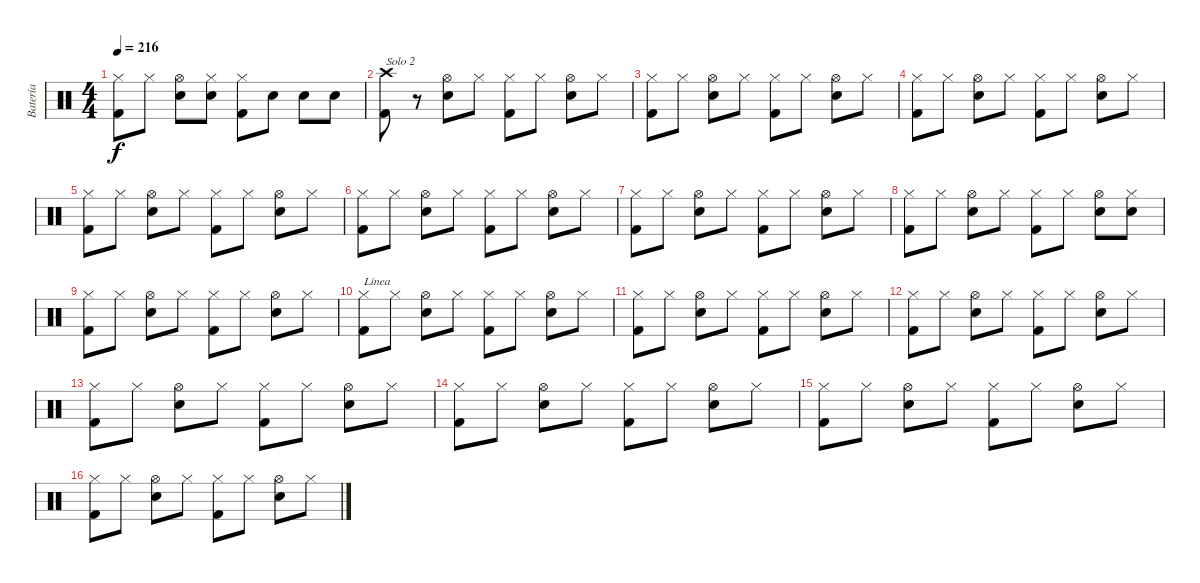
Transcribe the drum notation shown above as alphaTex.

\track ("Batería" "Batería") {instrument percussion}
\staff {score}
\articulation defaults
\ts (4 4)
\tempo 216
\clef neutral
\ks c
("Kick (hit) 2" "Hi-Hat (closed)").8{dy f} "Hi-Hat (closed)".8 ("Electric Snare (hit)" "Hi-Hat (open)").8 ("Electric Snare (hit)" "Hi-Hat (closed)").8 ("Kick (hit) 2" "Hi-Hat (closed)").8 "Electric Snare (hit)".8 "Electric Snare (hit)".8 "Electric Snare (hit)".8 |
("Kick (hit) 2" "Crash high (hit)").8{txt "Solo 2"} r.8 ("Electric Snare (hit)" "Hi-Hat (open)").8 "Hi-Hat (closed)".8 ("Kick (hit) 2" "Hi-Hat (closed)").8 "Hi-Hat (closed)".8 ("Electric Snare (hit)" "Hi-Hat (open)").8 "Hi-Hat (closed)".8 |
("Kick (hit) 2" "Hi-Hat (closed)").8 "Hi-Hat (closed)".8 ("Electric Snare (hit)" "Hi-Hat (open)").8 "Hi-Hat (closed)".8 ("Kick (hit) 2" "Hi-Hat (closed)").8 "Hi-Hat (closed)".8 ("Electric Snare (hit)" "Hi-Hat (open)").8 "Hi-Hat (closed)".8 |
("Kick (hit) 2" "Hi-Hat (closed)").8 "Hi-Hat (closed)".8 ("Electric Snare (hit)" "Hi-Hat (open)").8 "Hi-Hat (closed)".8 ("Kick (hit) 2" "Hi-Hat (closed)").8 "Hi-Hat (closed)".8 ("Electric Snare (hit)" "Hi-Hat (open)").8 "Hi-Hat (closed)".8 |
("Kick (hit) 2" "Hi-Hat (closed)").8 "Hi-Hat (closed)".8 ("Electric Snare (hit)" "Hi-Hat (open)").8 "Hi-Hat (closed)".8 ("Kick (hit) 2" "Hi-Hat (closed)").8 "Hi-Hat (closed)".8 ("Electric Snare (hit)" "Hi-Hat (open)").8 "Hi-Hat (closed)".8 |
("Kick (hit) 2" "Hi-Hat (closed)").8 "Hi-Hat (closed)".8 ("Electric Snare (hit)" "Hi-Hat (open)").8 "Hi-Hat (closed)".8 ("Kick (hit) 2" "Hi-Hat (closed)").8 "Hi-Hat (closed)".8 ("Electric Snare (hit)" "Hi-Hat (open)").8 "Hi-Hat (closed)".8 |
("Kick (hit) 2" "Hi-Hat (closed)").8 "Hi-Hat (closed)".8 ("Electric Snare (hit)" "Hi-Hat (open)").8 "Hi-Hat (closed)".8 ("Kick (hit) 2" "Hi-Hat (closed)").8 "Hi-Hat (closed)".8 ("Electric Snare (hit)" "Hi-Hat (open)").8 "Hi-Hat (closed)".8 |
("Kick (hit) 2" "Hi-Hat (closed)").8 "Hi-Hat (closed)".8 ("Electric Snare (hit)" "Hi-Hat (open)").8 "Hi-Hat (closed)".8 ("Kick (hit) 2" "Hi-Hat (closed)").8 "Hi-Hat (closed)".8 ("Electric Snare (hit)" "Hi-Hat (open)").8 ("Electric Snare (hit)" "Hi-Hat (closed)").8 |
("Kick (hit) 2" "Hi-Hat (closed)").8 "Hi-Hat (closed)".8 ("Electric Snare (hit)" "Hi-Hat (open)").8 "Hi-Hat (closed)".8 ("Kick (hit) 2" "Hi-Hat (closed)").8 "Hi-Hat (closed)".8 ("Electric Snare (hit)" "Hi-Hat (open)").8 "Hi-Hat (closed)".8 |
("Kick (hit) 2" "Hi-Hat (closed)").8{txt "Línea"} "Hi-Hat (closed)".8 ("Electric Snare (hit)" "Hi-Hat (open)").8 "Hi-Hat (closed)".8 ("Kick (hit) 2" "Hi-Hat (closed)").8 "Hi-Hat (closed)".8 ("Electric Snare (hit)" "Hi-Hat (open)").8 "Hi-Hat (closed)".8 |
("Kick (hit) 2" "Hi-Hat (closed)").8 "Hi-Hat (closed)".8 ("Electric Snare (hit)" "Hi-Hat (open)").8 "Hi-Hat (closed)".8 ("Kick (hit) 2" "Hi-Hat (closed)").8 "Hi-Hat (closed)".8 ("Electric Snare (hit)" "Hi-Hat (open)").8 "Hi-Hat (closed)".8 |
("Kick (hit) 2" "Hi-Hat (closed)").8 "Hi-Hat (closed)".8 ("Electric Snare (hit)" "Hi-Hat (open)").8 "Hi-Hat (closed)".8 ("Kick (hit) 2" "Hi-Hat (closed)").8 "Hi-Hat (closed)".8 ("Electric Snare (hit)" "Hi-Hat (open)").8 "Hi-Hat (closed)".8 |
("Kick (hit) 2" "Hi-Hat (closed)").8 "Hi-Hat (closed)".8 ("Electric Snare (hit)" "Hi-Hat (open)").8 "Hi-Hat (closed)".8 ("Kick (hit) 2" "Hi-Hat (closed)").8 "Hi-Hat (closed)".8 ("Electric Snare (hit)" "Hi-Hat (open)").8 "Hi-Hat (closed)".8 |
("Kick (hit) 2" "Hi-Hat (closed)").8 "Hi-Hat (closed)".8 ("Electric Snare (hit)" "Hi-Hat (open)").8 "Hi-Hat (closed)".8 ("Kick (hit) 2" "Hi-Hat (closed)").8 "Hi-Hat (closed)".8 ("Electric Snare (hit)" "Hi-Hat (open)").8 "Hi-Hat (closed)".8 |
("Kick (hit) 2" "Hi-Hat (closed)").8 "Hi-Hat (closed)".8 ("Electric Snare (hit)" "Hi-Hat (open)").8 "Hi-Hat (closed)".8 ("Kick (hit) 2" "Hi-Hat (closed)").8 "Hi-Hat (closed)".8 ("Electric Snare (hit)" "Hi-Hat (open)").8 "Hi-Hat (closed)".8 |
("Kick (hit) 2" "Hi-Hat (closed)").8 "Hi-Hat (closed)".8 ("Electric Snare (hit)" "Hi-Hat (open)").8 "Hi-Hat (closed)".8 ("Kick (hit) 2" "Hi-Hat (closed)").8 "Hi-Hat (closed)".8 ("Electric Snare (hit)" "Hi-Hat (open)").8 "Hi-Hat (closed)".8
